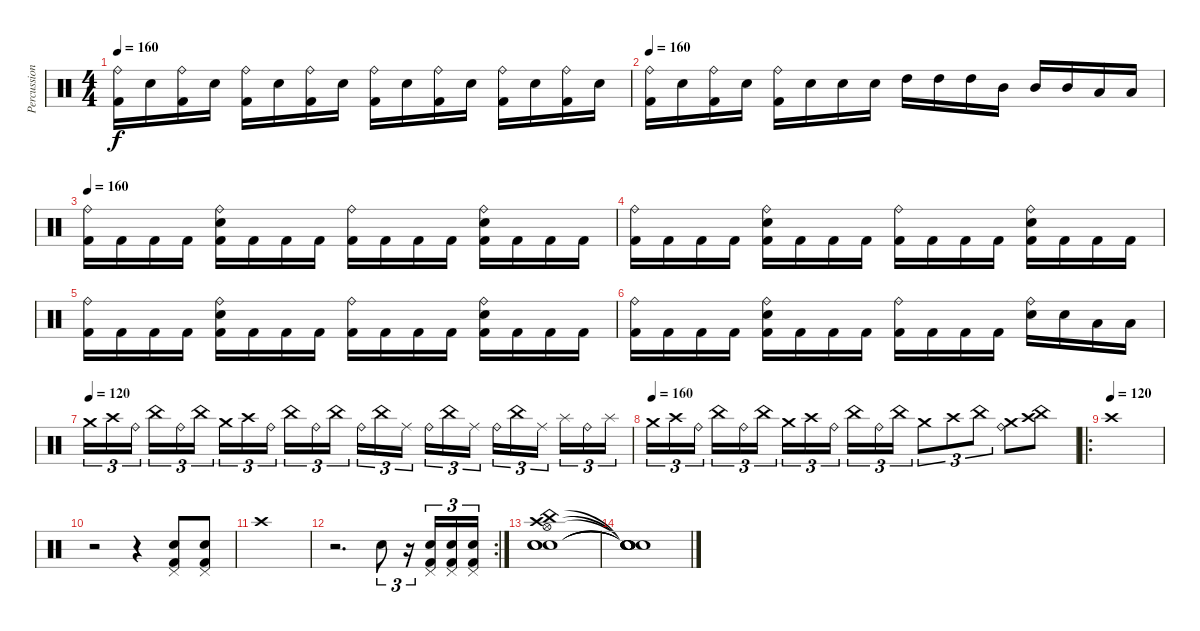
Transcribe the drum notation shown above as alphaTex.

\track ("Percussion" "Percussion") {instrument percussion}
\staff {score}
\articulation defaults
\ts (4 4)
\tempo 160
\clef neutral
\ks c
("Ride (bell)" "Kick (hit) 2").16{dy f} "Electric Snare (hit)".16 ("Ride (bell)" "Kick (hit) 2").16 "Electric Snare (hit)".16 ("Ride (bell)" "Kick (hit) 2").16 "Electric Snare (hit)".16 ("Ride (bell)" "Kick (hit) 2").16 "Electric Snare (hit)".16 ("Ride (bell)" "Kick (hit) 2").16 "Electric Snare (hit)".16 ("Ride (bell)" "Kick (hit) 2").16 "Electric Snare (hit)".16 ("Ride (bell)" "Kick (hit) 2").16 "Electric Snare (hit)".16 ("Ride (bell)" "Kick (hit) 2").16 "Electric Snare (hit)".16 |
\tempo 160
("Ride (bell)" "Kick (hit) 2").16 "Electric Snare (hit)".16 ("Ride (bell)" "Kick (hit) 2").16 "Electric Snare (hit)".16 ("Ride (bell)" "Kick (hit) 2").16 "Electric Snare (hit)".16 "Electric Snare (hit)".16 "Electric Snare (hit)".16 "High Tom (hit)".16 "High Tom (hit)".16 "High Tom (hit)".16 "Mid Tom (hit)".16 "Mid Tom (hit)".16 "Mid Tom (hit)".16 "Low Tom (hit)".16 "Low Tom (hit)".16 |
\tempo 160
("Ride (bell)" "Kick (hit) 2").16 "Kick (hit) 2".16 "Kick (hit) 2".16 "Kick (hit) 2".16 ("Ride (bell)" "Electric Snare (hit)" "Kick (hit) 2").16 "Kick (hit) 2".16 "Kick (hit) 2".16 "Kick (hit) 2".16 ("Ride (bell)" "Kick (hit) 2").16 "Kick (hit) 2".16 "Kick (hit) 2".16 "Kick (hit) 2".16 ("Ride (bell)" "Electric Snare (hit)" "Kick (hit) 2").16 "Kick (hit) 2".16 "Kick (hit) 2".16 "Kick (hit) 2".16 |
("Ride (bell)" "Kick (hit) 2").16 "Kick (hit) 2".16 "Kick (hit) 2".16 "Kick (hit) 2".16 ("Ride (bell)" "Electric Snare (hit)" "Kick (hit) 2").16 "Kick (hit) 2".16 "Kick (hit) 2".16 "Kick (hit) 2".16 ("Ride (bell)" "Kick (hit) 2").16 "Kick (hit) 2".16 "Kick (hit) 2".16 "Kick (hit) 2".16 ("Ride (bell)" "Electric Snare (hit)" "Kick (hit) 2").16 "Kick (hit) 2".16 "Kick (hit) 2".16 "Kick (hit) 2".16 |
("Ride (bell)" "Kick (hit) 2").16 "Kick (hit) 2".16 "Kick (hit) 2".16 "Kick (hit) 2".16 ("Ride (bell)" "Electric Snare (hit)" "Kick (hit) 2").16 "Kick (hit) 2".16 "Kick (hit) 2".16 "Kick (hit) 2".16 ("Ride (bell)" "Kick (hit) 2").16 "Kick (hit) 2".16 "Kick (hit) 2".16 "Kick (hit) 2".16 ("Ride (bell)" "Electric Snare (hit)" "Kick (hit) 2").16 "Kick (hit) 2".16 "Kick (hit) 2".16 "Kick (hit) 2".16 |
("Ride (bell)" "Kick (hit) 2").16 "Kick (hit) 2".16 "Kick (hit) 2".16 "Kick (hit) 2".16 ("Ride (bell)" "Electric Snare (hit)" "Kick (hit) 2").16 "Kick (hit) 2".16 "Kick (hit) 2".16 "Kick (hit) 2".16 ("Ride (bell)" "Kick (hit) 2").16 "Kick (hit) 2".16 "Kick (hit) 2".16 "Kick (hit) 2".16 ("Ride (bell)" "Electric Snare (hit)").16 "Electric Snare (hit)".16 "Low Tom (hit)".16 "Low Tom (hit)".16 |
\tempo 160
\tempo (120)
"Crash medium (hit)".16{tu (3 2)} "Crash high (hit)".16{tu (3 2)} "Ride (bell)".16{tu (3 2)} "China (hit)".16{tu (3 2)} "Ride (bell)".16{tu (3 2)} "China (hit)".16{tu (3 2)} "Crash medium (hit)".16{tu (3 2)} "Crash high (hit)".16{tu (3 2)} "Ride (bell)".16{tu (3 2)} "China (hit)".16{tu (3 2)} "Ride (bell)".16{tu (3 2)} "China (hit)".16{tu (3 2)} "Ride (bell)".16{tu (3 2)} "China (hit)".16{tu (3 2)} "Ride (middle)".16{tu (3 2)} "Ride (bell)".16{tu (3 2)} "China (hit)".16{tu (3 2)} "Ride (middle)".16{tu (3 2)} "Ride (bell)".16{tu (3 2)} "China (hit)".16{tu (3 2)} "Ride (middle)".16{tu (3 2)} "Splash (hit)".16{tu (3 2)} "Ride (bell)".16{tu (3 2)} "Splash (hit)".16{tu (3 2)} |
\tempo (160)
"Crash medium (hit)".16{tu (3 2) volume 10} "Crash high (hit)".16{tu (3 2)} "Ride (bell)".16{tu (3 2)} "China (hit)".16{tu (3 2)} "Ride (bell)".16{tu (3 2)} "China (hit)".16{tu (3 2)} "Crash medium (hit)".16{tu (3 2)} "Crash high (hit)".16{tu (3 2)} "Ride (bell)".16{tu (3 2)} "China (hit)".16{tu (3 2)} "Ride (bell)".16{tu (3 2)} "China (hit)".16{tu (3 2)} "Crash medium (hit)".8{tu (3 2)} "Crash high (hit)".8{tu (3 2)} "China (hit)".8{tu (3 2)} ("Crash medium (hit)" "Ride (bell)").8 ("Crash high (hit)" "China (hit)").8 |
\ro
\tempo (120)
"Crash high (hit)".1 |
r.2 r.4 ("Kick (hit) 2" "Snare (hit) 2" "Pedal Hi-Hat (hit)").8 ("Kick (hit) 2" "Snare (hit) 2" "Pedal Hi-Hat (hit)").8 |
"Crash high (hit)".1 |
\rc 2
r.2{d} "Snare (hit) 2".8{tu (3 2)} r.16{tu (3 2)} ("Kick (hit) 2" "Pedal Hi-Hat (hit)" "Snare (hit) 2").16{tu (3 2)} ("Kick (hit) 2" "Pedal Hi-Hat (hit)" "Snare (hit) 2").16{tu (3 2)} ("Kick (hit) 2" "Pedal Hi-Hat (hit)" "Snare (hit) 2").16{tu (3 2)} |
("Electric Snare (hit)" "Snare (hit) 2" "Electric Snare (hit)" "Hi-Hat (open)" "Crash high (hit)" "China (hit)").1 |
("Snare (hit)"{t} "Snare (hit)"{t} "Snare (hit)"{t} "Snare (hit)"{t} "Snare (hit)"{t} "Snare (hit)"{t}).1
